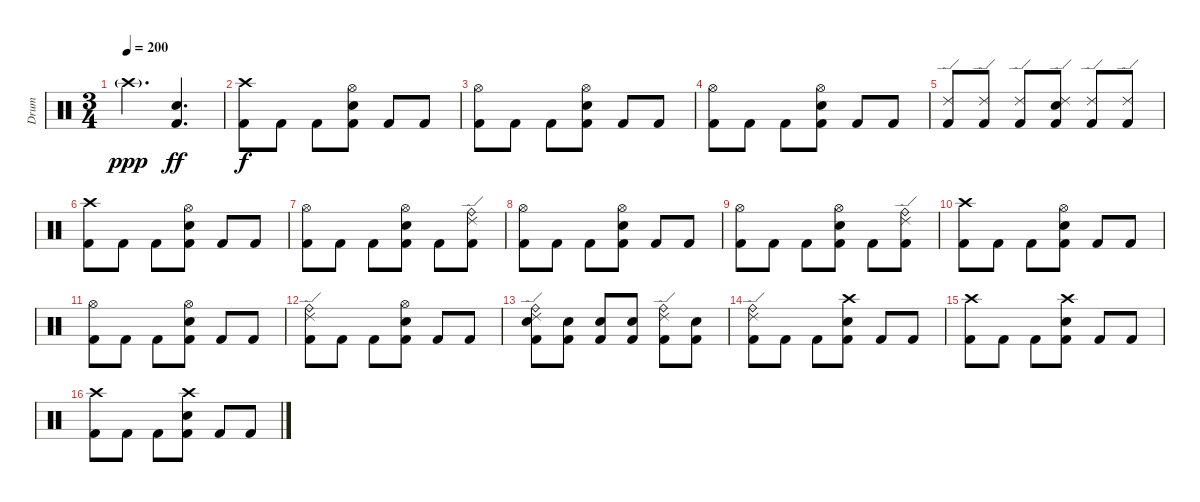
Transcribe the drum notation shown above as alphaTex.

\track ("Drum" "Drum") {instrument percussion}
\staff {score}
\articulation defaults
\ts (3 4)
\tempo 200
\clef neutral
\ks c "Crash high (hit)"{g}.4{d dy ppp}
("Electric Snare (hit)" "Kick (hit) 2").4{d dy ff} |
("Crash high (hit)" "Kick (hit) 2").8{dy f} "Kick (hit) 2".8 "Kick (hit) 2".8 ("Hi-Hat (open)" "Electric Snare (hit)" "Kick (hit) 2").8 "Kick (hit) 2".8 "Kick (hit) 2".8 |
("Hi-Hat (open)" "Kick (hit) 2").8 "Kick (hit) 2".8 "Kick (hit) 2".8 ("Hi-Hat (open)" "Electric Snare (hit)" "Kick (hit) 2").8 "Kick (hit) 2".8 "Kick (hit) 2".8 |
("Hi-Hat (open)" "Kick (hit) 2").8 "Kick (hit) 2".8 "Kick (hit) 2".8 ("Hi-Hat (open)" "Electric Snare (hit)" "Kick (hit) 2").8 "Kick (hit) 2".8 "Kick (hit) 2".8 |
("Ride (edge) 2" "Kick (hit) 2").8 ("Ride (edge) 2" "Kick (hit) 2").8 ("Ride (edge) 2" "Kick (hit) 2").8 ("Ride (edge) 2" "Electric Snare (hit)" "Kick (hit) 2").8 ("Ride (edge) 2" "Kick (hit) 2").8 ("Ride (edge) 2" "Kick (hit) 2").8 |
("Crash high (hit)" "Kick (hit) 2").8 "Kick (hit) 2".8 "Kick (hit) 2".8 ("Hi-Hat (open)" "Electric Snare (hit)" "Kick (hit) 2").8 "Kick (hit) 2".8 "Kick (hit) 2".8 |
("Hi-Hat (open)" "Kick (hit) 2").8 "Kick (hit) 2".8 "Kick (hit) 2".8 ("Hi-Hat (open)" "Electric Snare (hit)" "Kick (hit) 2").8 "Kick (hit) 2".8 ("Ride (edge) 2" "Ride (bell)" "Kick (hit) 2").8 |
("Hi-Hat (open)" "Kick (hit) 2").8 "Kick (hit) 2".8 "Kick (hit) 2".8 ("Hi-Hat (open)" "Electric Snare (hit)" "Kick (hit) 2").8 "Kick (hit) 2".8 "Kick (hit) 2".8 |
("Hi-Hat (open)" "Kick (hit) 2").8 "Kick (hit) 2".8 "Kick (hit) 2".8 ("Hi-Hat (open)" "Electric Snare (hit)" "Kick (hit) 2").8 "Kick (hit) 2".8 ("Ride (edge) 2" "Ride (bell)" "Kick (hit) 2").8 |
("Crash high (hit)" "Kick (hit) 2").8 "Kick (hit) 2".8 "Kick (hit) 2".8 ("Hi-Hat (open)" "Electric Snare (hit)" "Kick (hit) 2").8 "Kick (hit) 2".8 "Kick (hit) 2".8 |
("Hi-Hat (open)" "Kick (hit) 2").8 "Kick (hit) 2".8 "Kick (hit) 2".8 ("Hi-Hat (open)" "Electric Snare (hit)" "Kick (hit) 2").8 "Kick (hit) 2".8 "Kick (hit) 2".8 |
("Ride (edge) 2" "Ride (bell)" "Kick (hit) 2").8 "Kick (hit) 2".8 "Kick (hit) 2".8 ("Hi-Hat (open)" "Electric Snare (hit)" "Kick (hit) 2").8 "Kick (hit) 2".8 "Kick (hit) 2".8 |
("Ride (edge) 2" "Ride (bell)" "Electric Snare (hit)" "Kick (hit) 2").8 ("Electric Snare (hit)" "Kick (hit) 2").8 ("Electric Snare (hit)" "Kick (hit) 2").8 ("Electric Snare (hit)" "Kick (hit) 2").8 ("Ride (edge) 2" "Ride (bell)" "Kick (hit) 2").8 ("Electric Snare (hit)" "Kick (hit) 2").8 |
("Ride (edge) 2" "Ride (bell)" "Kick (hit) 2").8 "Kick (hit) 2".8 "Kick (hit) 2".8 ("Crash high (hit)" "Electric Snare (hit)" "Kick (hit) 2").8 "Kick (hit) 2".8 "Kick (hit) 2".8 |
("Crash high (hit)" "Kick (hit) 2").8 "Kick (hit) 2".8 "Kick (hit) 2".8 ("Crash high (hit)" "Electric Snare (hit)" "Kick (hit) 2").8 "Kick (hit) 2".8 "Kick (hit) 2".8 |
("Crash high (hit)" "Kick (hit) 2").8 "Kick (hit) 2".8 "Kick (hit) 2".8 ("Crash high (hit)" "Electric Snare (hit)" "Kick (hit) 2").8 "Kick (hit) 2".8 "Kick (hit) 2".8
